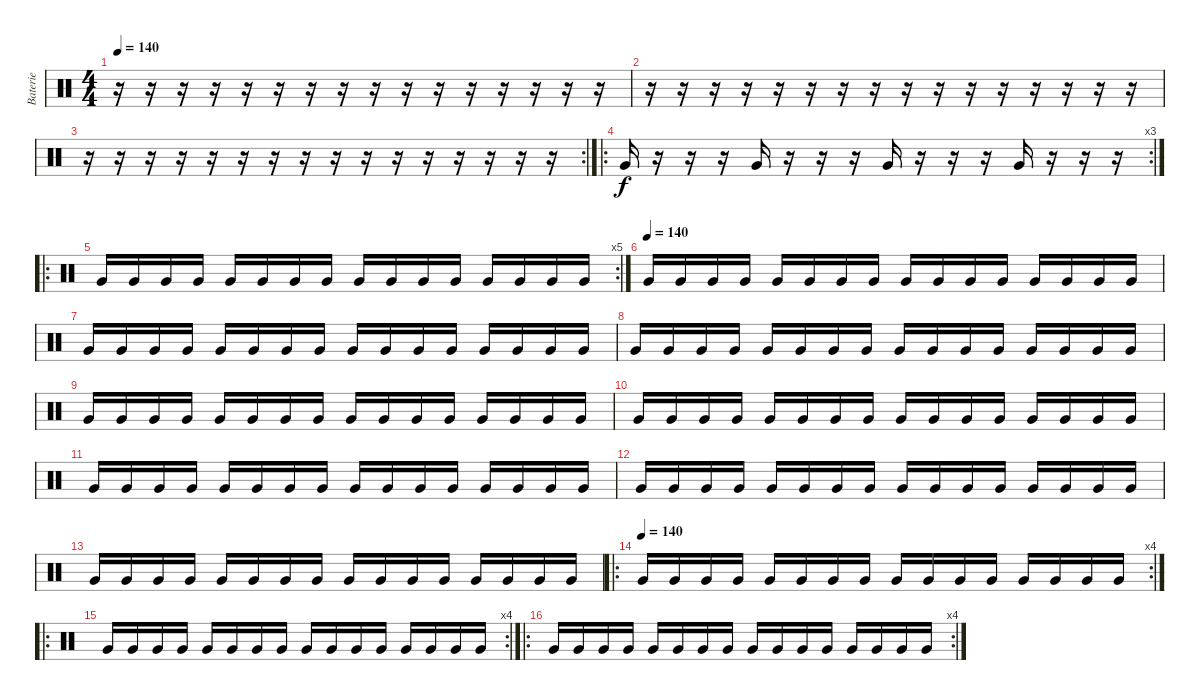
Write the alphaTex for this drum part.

\track ("Baterie" "Baterie") {instrument percussion}
\staff {score}
\articulation defaults
\ts (4 4)
\tempo 140
\clef neutral
\ks c
r.16{dy f} r.16 r.16 r.16 r.16 r.16 r.16 r.16 r.16 r.16 r.16 r.16 r.16 r.16 r.16 r.16 |
r.16 r.16 r.16 r.16 r.16 r.16 r.16 r.16 r.16 r.16 r.16 r.16 r.16 r.16 r.16 r.16 |
\rc 2
r.16 r.16 r.16 r.16 r.16 r.16 r.16 r.16 r.16 r.16 r.16 r.16 r.16 r.16 r.16 r.16 |
\ro
\rc 3 "Very Low Tom (hit)".16
r.16 r.16 r.16 "Very Low Tom (hit)".16 r.16 r.16 r.16 "Very Low Tom (hit)".16 r.16 r.16 r.16 "Very Low Tom (hit)".16 r.16 r.16 r.16 |
\ro
\rc 5 "Very Low Tom (hit)".16 "Very Low Tom (hit)".16 "Very Low Tom (hit)".16 "Very Low Tom (hit)".16 "Very Low Tom (hit)".16 "Very Low Tom (hit)".16 "Very Low Tom (hit)".16 "Very Low Tom (hit)".16 "Very Low Tom (hit)".16 "Very Low Tom (hit)".16 "Very Low Tom (hit)".16 "Very Low Tom (hit)".16 "Very Low Tom (hit)".16 "Very Low Tom (hit)".16 "Very Low Tom (hit)".16 "Very Low Tom (hit)".16
|
\tempo (140)
"Very Low Tom (hit)".16 "Very Low Tom (hit)".16 "Very Low Tom (hit)".16 "Very Low Tom (hit)".16 "Very Low Tom (hit)".16 "Very Low Tom (hit)".16 "Very Low Tom (hit)".16 "Very Low Tom (hit)".16 "Very Low Tom (hit)".16 "Very Low Tom (hit)".16 "Very Low Tom (hit)".16 "Very Low Tom (hit)".16 "Very Low Tom (hit)".16 "Very Low Tom (hit)".16 "Very Low Tom (hit)".16 "Very Low Tom (hit)".16 |
"Very Low Tom (hit)".16 "Very Low Tom (hit)".16 "Very Low Tom (hit)".16 "Very Low Tom (hit)".16 "Very Low Tom (hit)".16 "Very Low Tom (hit)".16 "Very Low Tom (hit)".16 "Very Low Tom (hit)".16 "Very Low Tom (hit)".16 "Very Low Tom (hit)".16 "Very Low Tom (hit)".16 "Very Low Tom (hit)".16 "Very Low Tom (hit)".16 "Very Low Tom (hit)".16 "Very Low Tom (hit)".16 "Very Low Tom (hit)".16 |
"Very Low Tom (hit)".16 "Very Low Tom (hit)".16 "Very Low Tom (hit)".16 "Very Low Tom (hit)".16 "Very Low Tom (hit)".16 "Very Low Tom (hit)".16 "Very Low Tom (hit)".16 "Very Low Tom (hit)".16 "Very Low Tom (hit)".16 "Very Low Tom (hit)".16 "Very Low Tom (hit)".16 "Very Low Tom (hit)".16 "Very Low Tom (hit)".16 "Very Low Tom (hit)".16 "Very Low Tom (hit)".16 "Very Low Tom (hit)".16 |
"Very Low Tom (hit)".16 "Very Low Tom (hit)".16 "Very Low Tom (hit)".16 "Very Low Tom (hit)".16 "Very Low Tom (hit)".16 "Very Low Tom (hit)".16 "Very Low Tom (hit)".16 "Very Low Tom (hit)".16 "Very Low Tom (hit)".16 "Very Low Tom (hit)".16 "Very Low Tom (hit)".16 "Very Low Tom (hit)".16 "Very Low Tom (hit)".16 "Very Low Tom (hit)".16 "Very Low Tom (hit)".16 "Very Low Tom (hit)".16 |
"Very Low Tom (hit)".16 "Very Low Tom (hit)".16 "Very Low Tom (hit)".16 "Very Low Tom (hit)".16 "Very Low Tom (hit)".16 "Very Low Tom (hit)".16 "Very Low Tom (hit)".16 "Very Low Tom (hit)".16 "Very Low Tom (hit)".16 "Very Low Tom (hit)".16 "Very Low Tom (hit)".16 "Very Low Tom (hit)".16 "Very Low Tom (hit)".16 "Very Low Tom (hit)".16 "Very Low Tom (hit)".16 "Very Low Tom (hit)".16 |
"Very Low Tom (hit)".16 "Very Low Tom (hit)".16 "Very Low Tom (hit)".16 "Very Low Tom (hit)".16 "Very Low Tom (hit)".16 "Very Low Tom (hit)".16 "Very Low Tom (hit)".16 "Very Low Tom (hit)".16 "Very Low Tom (hit)".16 "Very Low Tom (hit)".16 "Very Low Tom (hit)".16 "Very Low Tom (hit)".16 "Very Low Tom (hit)".16 "Very Low Tom (hit)".16 "Very Low Tom (hit)".16 "Very Low Tom (hit)".16 |
"Very Low Tom (hit)".16 "Very Low Tom (hit)".16 "Very Low Tom (hit)".16 "Very Low Tom (hit)".16 "Very Low Tom (hit)".16 "Very Low Tom (hit)".16 "Very Low Tom (hit)".16 "Very Low Tom (hit)".16 "Very Low Tom (hit)".16 "Very Low Tom (hit)".16 "Very Low Tom (hit)".16 "Very Low Tom (hit)".16 "Very Low Tom (hit)".16 "Very Low Tom (hit)".16 "Very Low Tom (hit)".16 "Very Low Tom (hit)".16 |
"Very Low Tom (hit)".16 "Very Low Tom (hit)".16 "Very Low Tom (hit)".16 "Very Low Tom (hit)".16 "Very Low Tom (hit)".16 "Very Low Tom (hit)".16 "Very Low Tom (hit)".16 "Very Low Tom (hit)".16 "Very Low Tom (hit)".16 "Very Low Tom (hit)".16 "Very Low Tom (hit)".16 "Very Low Tom (hit)".16 "Very Low Tom (hit)".16 "Very Low Tom (hit)".16 "Very Low Tom (hit)".16 "Very Low Tom (hit)".16 |
\ro
\rc 4
\tempo (140)
"Very Low Tom (hit)".16 "Very Low Tom (hit)".16 "Very Low Tom (hit)".16 "Very Low Tom (hit)".16 "Very Low Tom (hit)".16 "Very Low Tom (hit)".16 "Very Low Tom (hit)".16 "Very Low Tom (hit)".16 "Very Low Tom (hit)".16 "Very Low Tom (hit)".16 "Very Low Tom (hit)".16 "Very Low Tom (hit)".16 "Very Low Tom (hit)".16 "Very Low Tom (hit)".16 "Very Low Tom (hit)".16 "Very Low Tom (hit)".16 |
\ro
\rc 4 "Very Low Tom (hit)".16 "Very Low Tom (hit)".16 "Very Low Tom (hit)".16 "Very Low Tom (hit)".16 "Very Low Tom (hit)".16 "Very Low Tom (hit)".16 "Very Low Tom (hit)".16 "Very Low Tom (hit)".16 "Very Low Tom (hit)".16 "Very Low Tom (hit)".16 "Very Low Tom (hit)".16 "Very Low Tom (hit)".16 "Very Low Tom (hit)".16 "Very Low Tom (hit)".16 "Very Low Tom (hit)".16 "Very Low Tom (hit)".16
|
\ro
\rc 4 "Very Low Tom (hit)".16 "Very Low Tom (hit)".16 "Very Low Tom (hit)".16 "Very Low Tom (hit)".16 "Very Low Tom (hit)".16 "Very Low Tom (hit)".16 "Very Low Tom (hit)".16 "Very Low Tom (hit)".16 "Very Low Tom (hit)".16 "Very Low Tom (hit)".16 "Very Low Tom (hit)".16 "Very Low Tom (hit)".16 "Very Low Tom (hit)".16 "Very Low Tom (hit)".16 "Very Low Tom (hit)".16 "Very Low Tom (hit)".16
